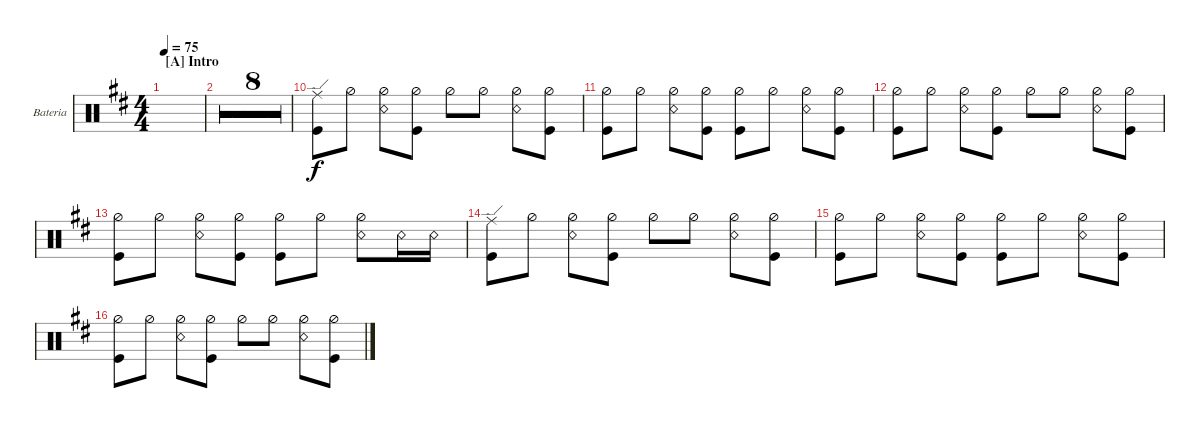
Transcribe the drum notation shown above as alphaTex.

\defaultSystemsLayout 4
\bracketExtendMode groupsimilarinstruments
\firstSystemTrackNameOrientation horizontal
\otherSystemsTrackNameOrientation horizontal
\track ("Bateria" "Bateria") {multiBarRest instrument percussion}
\staff {score}
\articulation defaults
\ts (4 4)
\section ("A" "Intro")
\tempo 75
\clef neutral
\ks d
|
|
|
|
|
|
|
|
|
("Kick (hit)" "Ride (edge)").8 "Hi-Hat (half)".8 ("Hi-Hat (half)" "Snare (rim shot)").8 ("Hi-Hat (half)" "Kick (hit)").8 "Hi-Hat (half)".8 "Hi-Hat (half)".8 ("Hi-Hat (half)" "Snare (rim shot)").8 ("Hi-Hat (half)" "Kick (hit)").8 |
("Hi-Hat (half)" "Kick (hit)").8 "Hi-Hat (half)".8 ("Hi-Hat (half)" "Snare (rim shot)").8 ("Hi-Hat (half)" "Kick (hit)").8 ("Hi-Hat (half)" "Kick (hit)").8 "Hi-Hat (half)".8 ("Snare (rim shot)" "Hi-Hat (half)").8 ("Hi-Hat (half)" "Kick (hit)").8 |
("Hi-Hat (half)" "Kick (hit)").8 "Hi-Hat (half)".8 ("Hi-Hat (half)" "Snare (rim shot)").8 ("Hi-Hat (half)" "Kick (hit)").8 "Hi-Hat (half)".8 "Hi-Hat (half)".8 ("Snare (rim shot)" "Hi-Hat (half)").8 ("Hi-Hat (half)" "Kick (hit)").8 |
("Hi-Hat (half)" "Kick (hit)").8 "Hi-Hat (half)".8 ("Hi-Hat (half)" "Snare (rim shot)").8 ("Hi-Hat (half)" "Kick (hit)").8 ("Hi-Hat (half)" "Kick (hit)").8 "Hi-Hat (half)".8 ("Snare (rim shot)" "Hi-Hat (half)").8 "Snare (rim shot)".16 "Snare (rim shot)".16 |
("Kick (hit)" "Ride (edge)").8 "Hi-Hat (half)".8 ("Hi-Hat (half)" "Snare (rim shot)").8 ("Hi-Hat (half)" "Kick (hit)").8 "Hi-Hat (half)".8 "Hi-Hat (half)".8 ("Hi-Hat (half)" "Snare (rim shot)").8 ("Hi-Hat (half)" "Kick (hit)").8 |
("Hi-Hat (half)" "Kick (hit)").8 "Hi-Hat (half)".8 ("Hi-Hat (half)" "Snare (rim shot)").8 ("Hi-Hat (half)" "Kick (hit)").8 ("Hi-Hat (half)" "Kick (hit)").8 "Hi-Hat (half)".8 ("Snare (rim shot)" "Hi-Hat (half)").8 ("Hi-Hat (half)" "Kick (hit)").8 |
("Hi-Hat (half)" "Kick (hit)").8 "Hi-Hat (half)".8 ("Hi-Hat (half)" "Snare (rim shot)").8 ("Hi-Hat (half)" "Kick (hit)").8 "Hi-Hat (half)".8 "Hi-Hat (half)".8 ("Snare (rim shot)" "Hi-Hat (half)").8 ("Hi-Hat (half)" "Kick (hit)").8
